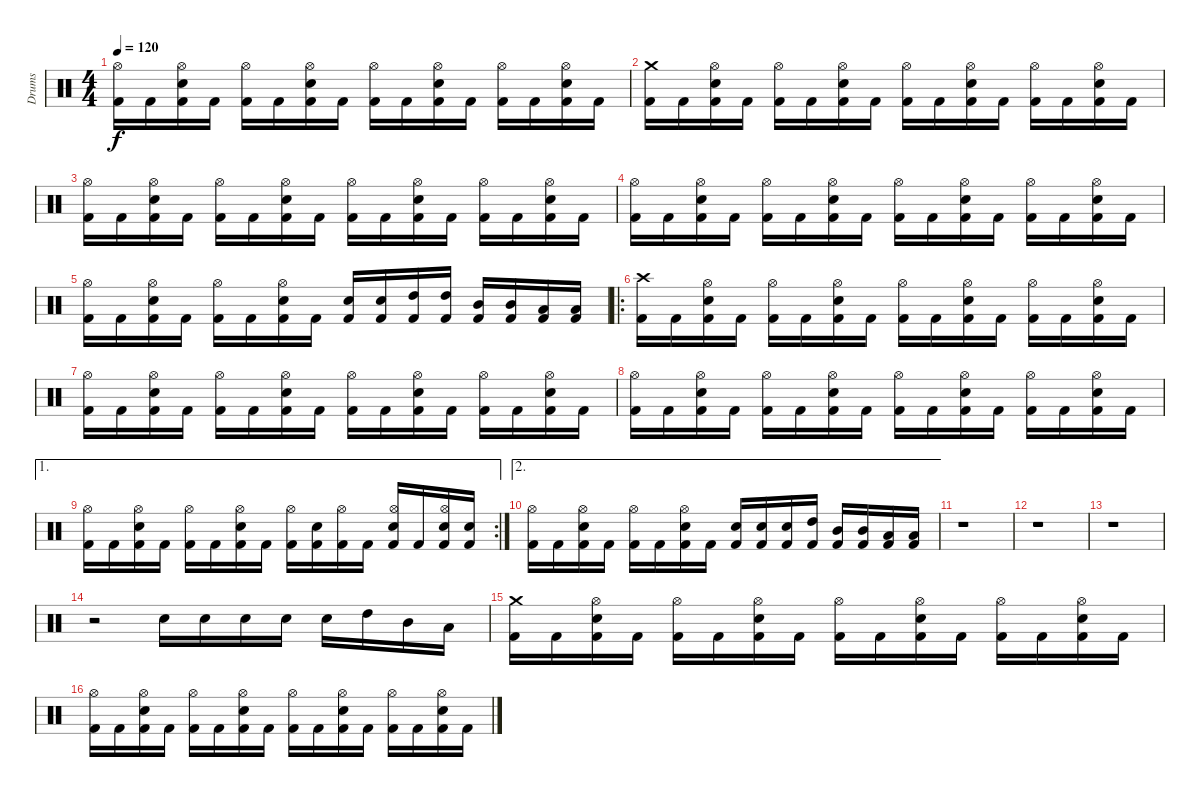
\track ("Drums" "Drums") {instrument percussion}
\staff {score}
\articulation defaults
\ts (4 4)
\tempo 120
\clef neutral
\ks c
("Kick (hit) 2" "Hi-Hat (open)").16{dy f} "Kick (hit) 2".16 ("Kick (hit) 2" "Electric Snare (hit)" "Hi-Hat (open)").16 "Kick (hit) 2".16 ("Kick (hit) 2" "Hi-Hat (open)").16 "Kick (hit) 2".16 ("Kick (hit) 2" "Electric Snare (hit)" "Hi-Hat (open)").16 "Kick (hit) 2".16 ("Kick (hit) 2" "Hi-Hat (open)").16 "Kick (hit) 2".16 ("Kick (hit) 2" "Electric Snare (hit)" "Hi-Hat (open)").16 "Kick (hit) 2".16 ("Kick (hit) 2" "Hi-Hat (open)").16 "Kick (hit) 2".16 ("Kick (hit) 2" "Electric Snare (hit)" "Hi-Hat (open)").16 "Kick (hit) 2".16 |
("Kick (hit) 2" "Crash medium (hit)").16 "Kick (hit) 2".16 ("Kick (hit) 2" "Electric Snare (hit)" "Hi-Hat (open)").16 "Kick (hit) 2".16 ("Kick (hit) 2" "Hi-Hat (open)").16 "Kick (hit) 2".16 ("Kick (hit) 2" "Electric Snare (hit)" "Hi-Hat (open)").16 "Kick (hit) 2".16 ("Kick (hit) 2" "Hi-Hat (open)").16 "Kick (hit) 2".16 ("Kick (hit) 2" "Electric Snare (hit)" "Hi-Hat (open)").16 "Kick (hit) 2".16 ("Kick (hit) 2" "Hi-Hat (open)").16 "Kick (hit) 2".16 ("Kick (hit) 2" "Electric Snare (hit)" "Hi-Hat (open)").16 "Kick (hit) 2".16 |
("Kick (hit) 2" "Hi-Hat (open)").16 "Kick (hit) 2".16 ("Kick (hit) 2" "Electric Snare (hit)" "Hi-Hat (open)").16 "Kick (hit) 2".16 ("Kick (hit) 2" "Hi-Hat (open)").16 "Kick (hit) 2".16 ("Kick (hit) 2" "Electric Snare (hit)" "Hi-Hat (open)").16 "Kick (hit) 2".16 ("Kick (hit) 2" "Hi-Hat (open)").16 "Kick (hit) 2".16 ("Kick (hit) 2" "Electric Snare (hit)" "Hi-Hat (open)").16 "Kick (hit) 2".16 ("Kick (hit) 2" "Hi-Hat (open)").16 "Kick (hit) 2".16 ("Kick (hit) 2" "Electric Snare (hit)" "Hi-Hat (open)").16 "Kick (hit) 2".16 |
("Kick (hit) 2" "Hi-Hat (open)").16 "Kick (hit) 2".16 ("Kick (hit) 2" "Electric Snare (hit)" "Hi-Hat (open)").16 "Kick (hit) 2".16 ("Kick (hit) 2" "Hi-Hat (open)").16 "Kick (hit) 2".16 ("Kick (hit) 2" "Electric Snare (hit)" "Hi-Hat (open)").16 "Kick (hit) 2".16 ("Kick (hit) 2" "Hi-Hat (open)").16 "Kick (hit) 2".16 ("Kick (hit) 2" "Electric Snare (hit)" "Hi-Hat (open)").16 "Kick (hit) 2".16 ("Kick (hit) 2" "Hi-Hat (open)").16 "Kick (hit) 2".16 ("Kick (hit) 2" "Electric Snare (hit)" "Hi-Hat (open)").16 "Kick (hit) 2".16 |
("Kick (hit) 2" "Hi-Hat (open)").16 "Kick (hit) 2".16 ("Kick (hit) 2" "Electric Snare (hit)" "Hi-Hat (open)").16 "Kick (hit) 2".16 ("Kick (hit) 2" "Hi-Hat (open)").16 "Kick (hit) 2".16 ("Kick (hit) 2" "Electric Snare (hit)" "Hi-Hat (open)").16 "Kick (hit) 2".16 ("Kick (hit) 2" "Electric Snare (hit)").16 ("Kick (hit) 2" "Electric Snare (hit)").16 ("Kick (hit) 2" "High Tom (hit)").16 ("Kick (hit) 2" "High Tom (hit)").16 ("Kick (hit) 2" "Mid Tom (hit)").16 ("Kick (hit) 2" "Mid Tom (hit)").16 ("Kick (hit) 2" "Low Tom (hit)").16 ("Kick (hit) 2" "Low Tom (hit)").16 |
\ro
("Kick (hit) 2" "Crash high (hit)").16 "Kick (hit) 2".16 ("Kick (hit) 2" "Electric Snare (hit)" "Hi-Hat (open)").16 "Kick (hit) 2".16 ("Kick (hit) 2" "Hi-Hat (open)").16 "Kick (hit) 2".16 ("Kick (hit) 2" "Electric Snare (hit)" "Hi-Hat (open)").16 "Kick (hit) 2".16 ("Kick (hit) 2" "Hi-Hat (open)").16 "Kick (hit) 2".16 ("Kick (hit) 2" "Electric Snare (hit)" "Hi-Hat (open)").16 "Kick (hit) 2".16 ("Kick (hit) 2" "Hi-Hat (open)").16 "Kick (hit) 2".16 ("Kick (hit) 2" "Electric Snare (hit)" "Hi-Hat (open)").16 "Kick (hit) 2".16 |
("Kick (hit) 2" "Hi-Hat (open)").16 "Kick (hit) 2".16 ("Kick (hit) 2" "Electric Snare (hit)" "Hi-Hat (open)").16 "Kick (hit) 2".16 ("Kick (hit) 2" "Hi-Hat (open)").16 "Kick (hit) 2".16 ("Kick (hit) 2" "Electric Snare (hit)" "Hi-Hat (open)").16 "Kick (hit) 2".16 ("Kick (hit) 2" "Hi-Hat (open)").16 "Kick (hit) 2".16 ("Kick (hit) 2" "Electric Snare (hit)" "Hi-Hat (open)").16 "Kick (hit) 2".16 ("Kick (hit) 2" "Hi-Hat (open)").16 "Kick (hit) 2".16 ("Kick (hit) 2" "Electric Snare (hit)" "Hi-Hat (open)").16 "Kick (hit) 2".16 |
("Kick (hit) 2" "Hi-Hat (open)").16 "Kick (hit) 2".16 ("Kick (hit) 2" "Electric Snare (hit)" "Hi-Hat (open)").16 "Kick (hit) 2".16 ("Kick (hit) 2" "Hi-Hat (open)").16 "Kick (hit) 2".16 ("Kick (hit) 2" "Electric Snare (hit)" "Hi-Hat (open)").16 "Kick (hit) 2".16 ("Kick (hit) 2" "Hi-Hat (open)").16 "Kick (hit) 2".16 ("Kick (hit) 2" "Electric Snare (hit)" "Hi-Hat (open)").16 "Kick (hit) 2".16 ("Kick (hit) 2" "Hi-Hat (open)").16 "Kick (hit) 2".16 ("Kick (hit) 2" "Electric Snare (hit)" "Hi-Hat (open)").16 "Kick (hit) 2".16 |
\ae 1
\rc 2
("Kick (hit) 2" "Hi-Hat (open)").16 "Kick (hit) 2".16 ("Kick (hit) 2" "Electric Snare (hit)" "Hi-Hat (open)").16 "Kick (hit) 2".16 ("Kick (hit) 2" "Hi-Hat (open)").16 "Kick (hit) 2".16 ("Kick (hit) 2" "Electric Snare (hit)" "Hi-Hat (open)").16 "Kick (hit) 2".16 ("Kick (hit) 2" "Hi-Hat (open)").16 ("Kick (hit) 2" "Electric Snare (hit)").16 ("Kick (hit) 2" "Hi-Hat (open)").16 "Kick (hit) 2".16 ("Kick (hit) 2" "Electric Snare (hit)" "Hi-Hat (open)").16 "Kick (hit) 2".16 ("Kick (hit) 2" "Electric Snare (hit)" "Hi-Hat (open)").16 ("Kick (hit) 2" "Electric Snare (hit)").16 |
\ae 2
("Kick (hit) 2" "Hi-Hat (open)").16 "Kick (hit) 2".16 ("Kick (hit) 2" "Electric Snare (hit)" "Hi-Hat (open)").16 "Kick (hit) 2".16 ("Kick (hit) 2" "Hi-Hat (open)").16 "Kick (hit) 2".16 ("Kick (hit) 2" "Electric Snare (hit)" "Hi-Hat (open)").16 "Kick (hit) 2".16 ("Kick (hit) 2" "Electric Snare (hit)").16 ("Kick (hit) 2" "Electric Snare (hit)").16 ("Kick (hit) 2" "Electric Snare (hit)").16 ("Kick (hit) 2" "High Tom (hit)").16 ("Kick (hit) 2" "Mid Tom (hit)").16 ("Kick (hit) 2" "Mid Tom (hit)").16 ("Kick (hit) 2" "Low Tom (hit)").16 ("Kick (hit) 2" "Low Tom (hit)").16 |
r.1 |
r.1 |
r.1 |
r.2 "Electric Snare (hit)".16 "Electric Snare (hit)".16 "Electric Snare (hit)".16 "Electric Snare (hit)".16 "Electric Snare (hit)".16 "High Tom (hit)".16 "Mid Tom (hit)".16 "Low Tom (hit)".16 |
("Kick (hit) 2" "Crash medium (hit)").16 "Kick (hit) 2".16 ("Kick (hit) 2" "Electric Snare (hit)" "Hi-Hat (open)").16 "Kick (hit) 2".16 ("Kick (hit) 2" "Hi-Hat (open)").16 "Kick (hit) 2".16 ("Kick (hit) 2" "Electric Snare (hit)" "Hi-Hat (open)").16 "Kick (hit) 2".16 ("Kick (hit) 2" "Hi-Hat (open)").16 "Kick (hit) 2".16 ("Kick (hit) 2" "Electric Snare (hit)" "Hi-Hat (open)").16 "Kick (hit) 2".16 ("Kick (hit) 2" "Hi-Hat (open)").16 "Kick (hit) 2".16 ("Kick (hit) 2" "Electric Snare (hit)" "Hi-Hat (open)").16 "Kick (hit) 2".16 |
("Kick (hit) 2" "Hi-Hat (open)").16 "Kick (hit) 2".16 ("Kick (hit) 2" "Electric Snare (hit)" "Hi-Hat (open)").16 "Kick (hit) 2".16 ("Kick (hit) 2" "Hi-Hat (open)").16 "Kick (hit) 2".16 ("Kick (hit) 2" "Electric Snare (hit)" "Hi-Hat (open)").16 "Kick (hit) 2".16 ("Kick (hit) 2" "Hi-Hat (open)").16 "Kick (hit) 2".16 ("Kick (hit) 2" "Electric Snare (hit)" "Hi-Hat (open)").16 "Kick (hit) 2".16 ("Kick (hit) 2" "Hi-Hat (open)").16 "Kick (hit) 2".16 ("Kick (hit) 2" "Electric Snare (hit)" "Hi-Hat (open)").16 "Kick (hit) 2".16
